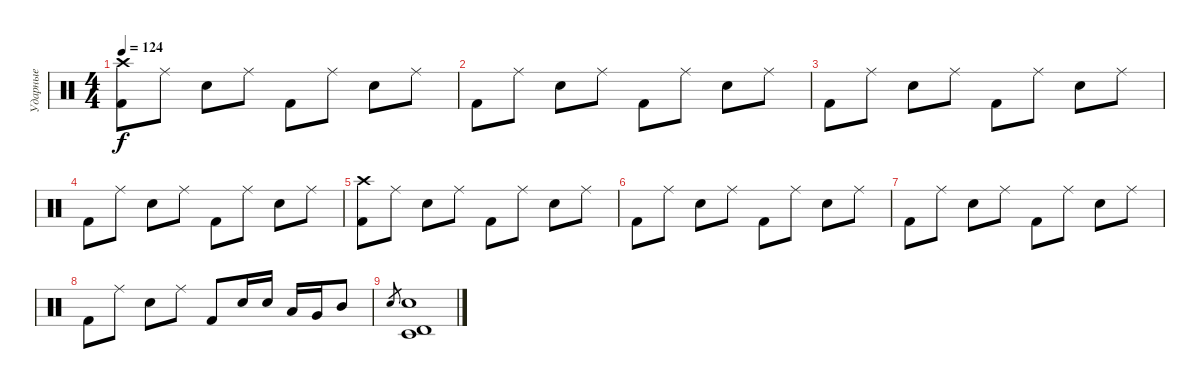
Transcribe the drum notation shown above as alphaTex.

\track ("Ударные" "Ударные") {instrument percussion}
\staff {score}
\articulation defaults
\ts (4 4)
\tempo 124
\clef neutral
\ks c
("Crash high (hit)" "Kick (hit) 2").8{dy f} "Ride (middle)".8 "Electric Snare (hit)".8 "Ride (middle)".8 "Kick (hit) 2".8 "Ride (middle)".8 "Electric Snare (hit)".8 "Ride (middle)".8 |
"Kick (hit) 2".8 "Ride (middle)".8 "Electric Snare (hit)".8 "Ride (middle)".8 "Kick (hit) 2".8 "Ride (middle)".8 "Electric Snare (hit)".8 "Ride (middle)".8 |
"Kick (hit) 2".8 "Ride (middle)".8 "Electric Snare (hit)".8 "Ride (middle)".8 "Kick (hit) 2".8 "Ride (middle)".8 "Electric Snare (hit)".8 "Ride (middle)".8 |
"Kick (hit) 2".8 "Ride (middle)".8 "Electric Snare (hit)".8 "Ride (middle)".8 "Kick (hit) 2".8 "Ride (middle)".8 "Electric Snare (hit)".8 "Ride (middle)".8 |
("Crash high (hit)" "Kick (hit) 2").8 "Ride (middle)".8 "Electric Snare (hit)".8 "Ride (middle)".8 "Kick (hit) 2".8 "Ride (middle)".8 "Electric Snare (hit)".8 "Ride (middle)".8 |
"Kick (hit) 2".8 "Ride (middle)".8 "Electric Snare (hit)".8 "Ride (middle)".8 "Kick (hit) 2".8 "Ride (middle)".8 "Electric Snare (hit)".8 "Ride (middle)".8 |
"Kick (hit) 2".8 "Ride (middle)".8 "Electric Snare (hit)".8 "Ride (middle)".8 "Kick (hit) 2".8 "Ride (middle)".8 "Electric Snare (hit)".8 "Ride (middle)".8 |
"Kick (hit) 2".8 "Ride (middle)".8 "Electric Snare (hit)".8 "Ride (middle)".8 "Kick (hit) 2".8 "Electric Snare (hit)".16 "Electric Snare (hit)".16 "Low Tom (hit)".16 "Very Low Tom (hit)".16 "Mid Tom (hit)".8 |
"Electric Snare (hit)".8{gr} ("Timbale low (hit)" "Timbale high (hit)" "Electric Snare (hit)").1
